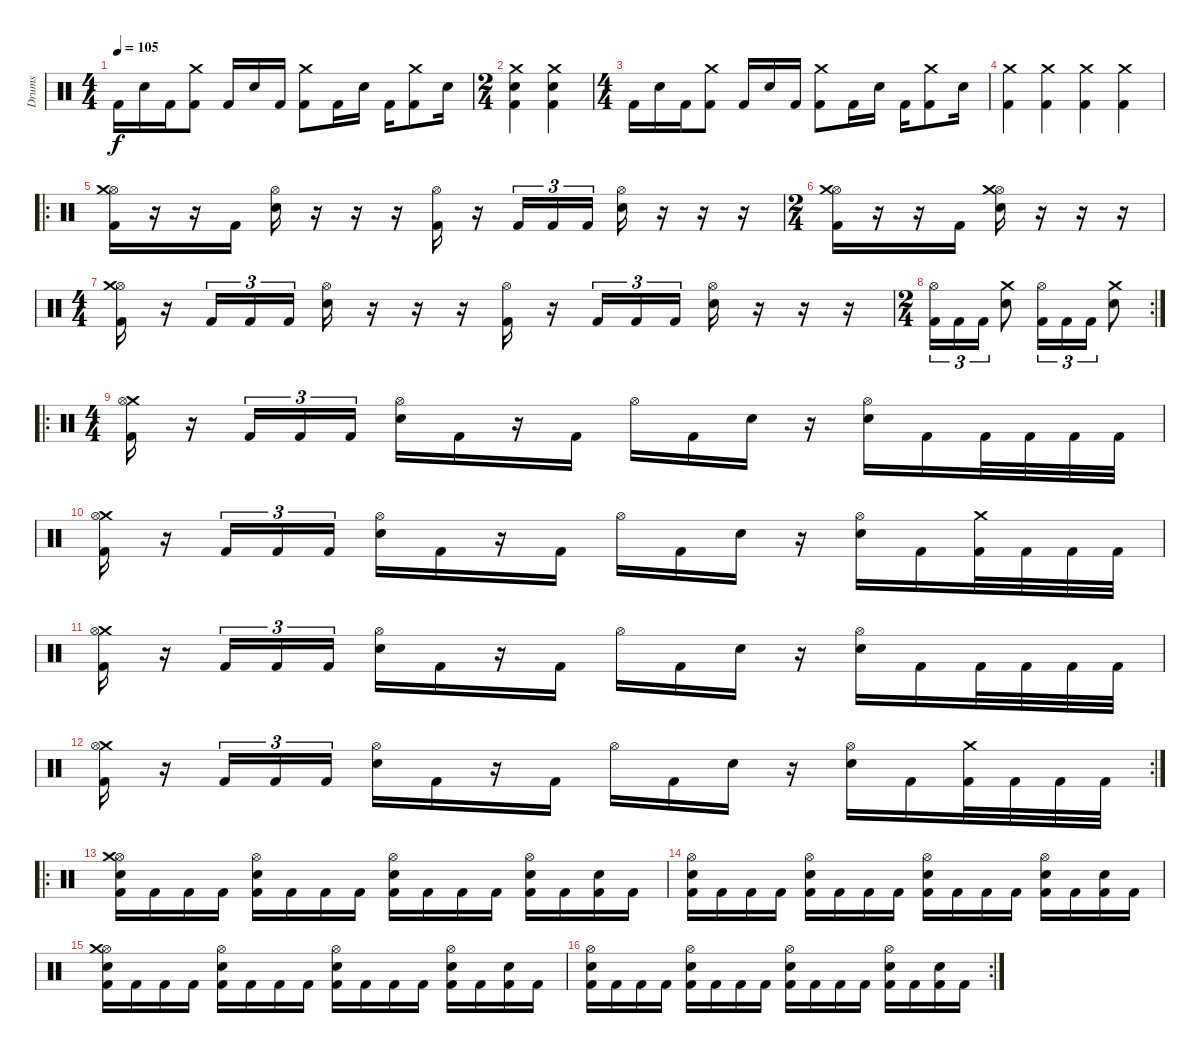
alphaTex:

\track ("Drums" "Drums") {instrument percussion}
\staff {score}
\articulation defaults
\ts (4 4)
\tempo 105
\clef neutral
\ks c "Kick (hit) 2".16{dy f} "Snare (hit) 2".16 "Kick (hit) 2".16
("Kick (hit) 2" "Crash medium (hit)").8 "Kick (hit) 2".16 "Snare (hit) 2".16 "Kick (hit) 2".16 ("Kick (hit) 2" "Crash medium (hit)").8 "Kick (hit) 2".16 "Snare (hit) 2".16 "Kick (hit) 2".16 ("Crash medium (hit)" "Kick (hit) 2").8 "Snare (hit) 2".16 |
\ts (2 4)
("Snare (hit) 2" "Kick (hit) 2" "Crash medium (hit)").4 ("Snare (hit) 2" "Crash medium (hit)" "Kick (hit) 2").4 |
\ts (4 4)
"Kick (hit) 2".16 "Snare (hit) 2".16 "Kick (hit) 2".16 ("Kick (hit) 2" "Crash medium (hit)").8 "Kick (hit) 2".16 "Snare (hit) 2".16 "Kick (hit) 2".16 ("Kick (hit) 2" "Crash medium (hit)").8 "Kick (hit) 2".16 "Snare (hit) 2".16 "Kick (hit) 2".16 ("Crash medium (hit)" "Kick (hit) 2").8 "Snare (hit) 2".16 |
("Crash medium (hit)" "Kick (hit) 2").4 ("Kick (hit) 2" "Crash medium (hit)").4 ("Crash medium (hit)" "Kick (hit) 2").4 ("Crash medium (hit)" "Kick (hit) 2").4 |
\ro
("Hi-Hat (open)" "Kick (hit) 2" "Crash medium (hit)").16 r.16 r.16 "Kick (hit) 2".16 ("Hi-Hat (open)" "Snare (hit) 2").16 r.16 r.16 r.16 ("Hi-Hat (open)" "Kick (hit) 2").16 r.16 "Kick (hit) 2".16{tu (3 2)} "Kick (hit) 2".16{tu (3 2)} "Kick (hit) 2".16{tu (3 2)} ("Hi-Hat (open)" "Snare (hit) 2").16 r.16 r.16 r.16 |
\ts (2 4)
("Hi-Hat (open)" "Kick (hit) 2" "Crash medium (hit)").16 r.16 r.16 "Kick (hit) 2".16 ("Hi-Hat (open)" "Snare (hit) 2" "Crash medium (hit)").16 r.16 r.16 r.16 |
\ts (4 4)
("Hi-Hat (open)" "Kick (hit) 2" "Crash medium (hit)").16 r.16 "Kick (hit) 2".16{tu (3 2)} "Kick (hit) 2".16{tu (3 2)} "Kick (hit) 2".16{tu (3 2)} ("Hi-Hat (open)" "Snare (hit) 2").16 r.16 r.16 r.16 ("Hi-Hat (open)" "Kick (hit) 2").16 r.16 "Kick (hit) 2".16{tu (3 2)} "Kick (hit) 2".16{tu (3 2)} "Kick (hit) 2".16{tu (3 2)} ("Hi-Hat (open)" "Snare (hit) 2").16 r.16 r.16 r.16 |
\rc 2
\ts (2 4)
("Hi-Hat (open)" "Kick (hit) 2").16{tu (3 2)} "Kick (hit) 2".16{tu (3 2)} "Kick (hit) 2".16{tu (3 2)} ("Snare (hit) 2" "Crash medium (hit)").8 ("Hi-Hat (open)" "Kick (hit) 2").16{tu (3 2)} "Kick (hit) 2".16{tu (3 2)} "Kick (hit) 2".16{tu (3 2)} ("Crash medium (hit)" "Snare (hit) 2").8 |
\ro
\ts (4 4)
("Kick (hit) 2" "Crash medium (hit)" "Hi-Hat (open)").16 r.16 "Kick (hit) 2".16{tu (3 2)} "Kick (hit) 2".16{tu (3 2)} "Kick (hit) 2".16{tu (3 2)} ("Snare (hit) 2" "Hi-Hat (open)").16 "Kick (hit) 2".16 r.16 "Kick (hit) 2".16 "Hi-Hat (open)".16 "Kick (hit) 2".16 "Snare (hit) 2".16 r.16 ("Snare (hit) 2" "Hi-Hat (open)").16 "Kick (hit) 2".16 "Kick (hit) 2".32 "Kick (hit) 2".32 "Kick (hit) 2".32 "Kick (hit) 2".32 |
("Kick (hit) 2" "Crash medium (hit)" "Hi-Hat (open)").16 r.16 "Kick (hit) 2".16{tu (3 2)} "Kick (hit) 2".16{tu (3 2)} "Kick (hit) 2".16{tu (3 2)} ("Snare (hit) 2" "Hi-Hat (open)").16 "Kick (hit) 2".16 r.16 "Kick (hit) 2".16 "Hi-Hat (open)".16 "Kick (hit) 2".16 "Snare (hit) 2".16 r.16 ("Snare (hit) 2" "Hi-Hat (open)").16 "Kick (hit) 2".16 ("Kick (hit) 2" "Crash medium (hit)").32 "Kick (hit) 2".32 "Kick (hit) 2".32 "Kick (hit) 2".32 |
("Kick (hit) 2" "Crash medium (hit)" "Hi-Hat (open)").16 r.16 "Kick (hit) 2".16{tu (3 2)} "Kick (hit) 2".16{tu (3 2)} "Kick (hit) 2".16{tu (3 2)} ("Snare (hit) 2" "Hi-Hat (open)").16 "Kick (hit) 2".16 r.16 "Kick (hit) 2".16 "Hi-Hat (open)".16 "Kick (hit) 2".16 "Snare (hit) 2".16 r.16 ("Snare (hit) 2" "Hi-Hat (open)").16 "Kick (hit) 2".16 "Kick (hit) 2".32 "Kick (hit) 2".32 "Kick (hit) 2".32 "Kick (hit) 2".32 |
\rc 2
("Kick (hit) 2" "Crash medium (hit)" "Hi-Hat (open)").16 r.16 "Kick (hit) 2".16{tu (3 2)} "Kick (hit) 2".16{tu (3 2)} "Kick (hit) 2".16{tu (3 2)} ("Snare (hit) 2" "Hi-Hat (open)").16 "Kick (hit) 2".16 r.16 "Kick (hit) 2".16 "Hi-Hat (open)".16 "Kick (hit) 2".16 "Snare (hit) 2".16 r.16 ("Snare (hit) 2" "Hi-Hat (open)").16 "Kick (hit) 2".16 ("Kick (hit) 2" "Crash medium (hit)").32 "Kick (hit) 2".32 "Kick (hit) 2".32 "Kick (hit) 2".32 |
\ro
("Kick (hit) 2" "Snare (hit) 2" "Hi-Hat (open)" "Crash medium (hit)").16 "Kick (hit) 2".16 "Kick (hit) 2".16 "Kick (hit) 2".16 ("Kick (hit) 2" "Snare (hit) 2" "Hi-Hat (open)").16 "Kick (hit) 2".16 "Kick (hit) 2".16 "Kick (hit) 2".16 ("Kick (hit) 2" "Snare (hit) 2" "Hi-Hat (open)").16 "Kick (hit) 2".16 "Kick (hit) 2".16 "Kick (hit) 2".16 ("Kick (hit) 2" "Snare (hit) 2" "Hi-Hat (open)").16 "Kick (hit) 2".16 ("Kick (hit) 2" "Snare (hit) 2").16 "Kick (hit) 2".16 |
("Kick (hit) 2" "Snare (hit) 2" "Hi-Hat (open)").16 "Kick (hit) 2".16 "Kick (hit) 2".16 "Kick (hit) 2".16 ("Kick (hit) 2" "Snare (hit) 2" "Hi-Hat (open)").16 "Kick (hit) 2".16 "Kick (hit) 2".16 "Kick (hit) 2".16 ("Kick (hit) 2" "Snare (hit) 2" "Hi-Hat (open)").16 "Kick (hit) 2".16 "Kick (hit) 2".16 "Kick (hit) 2".16 ("Kick (hit) 2" "Snare (hit) 2" "Hi-Hat (open)").16 "Kick (hit) 2".16 ("Kick (hit) 2" "Snare (hit) 2").16 "Kick (hit) 2".16 |
("Kick (hit) 2" "Snare (hit) 2" "Hi-Hat (open)" "Crash medium (hit)").16 "Kick (hit) 2".16 "Kick (hit) 2".16 "Kick (hit) 2".16 ("Kick (hit) 2" "Snare (hit) 2" "Hi-Hat (open)").16 "Kick (hit) 2".16 "Kick (hit) 2".16 "Kick (hit) 2".16 ("Kick (hit) 2" "Snare (hit) 2" "Hi-Hat (open)").16 "Kick (hit) 2".16 "Kick (hit) 2".16 "Kick (hit) 2".16 ("Kick (hit) 2" "Snare (hit) 2" "Hi-Hat (open)").16 "Kick (hit) 2".16 ("Kick (hit) 2" "Snare (hit) 2").16 "Kick (hit) 2".16 |
\rc 2
("Kick (hit) 2" "Snare (hit) 2" "Hi-Hat (open)").16 "Kick (hit) 2".16 "Kick (hit) 2".16 "Kick (hit) 2".16 ("Kick (hit) 2" "Snare (hit) 2" "Hi-Hat (open)").16 "Kick (hit) 2".16 "Kick (hit) 2".16 "Kick (hit) 2".16 ("Kick (hit) 2" "Snare (hit) 2" "Hi-Hat (open)").16 "Kick (hit) 2".16 "Kick (hit) 2".16 "Kick (hit) 2".16 ("Kick (hit) 2" "Snare (hit) 2" "Hi-Hat (open)").16 "Kick (hit) 2".16 ("Kick (hit) 2" "Snare (hit) 2").16 "Kick (hit) 2".16
